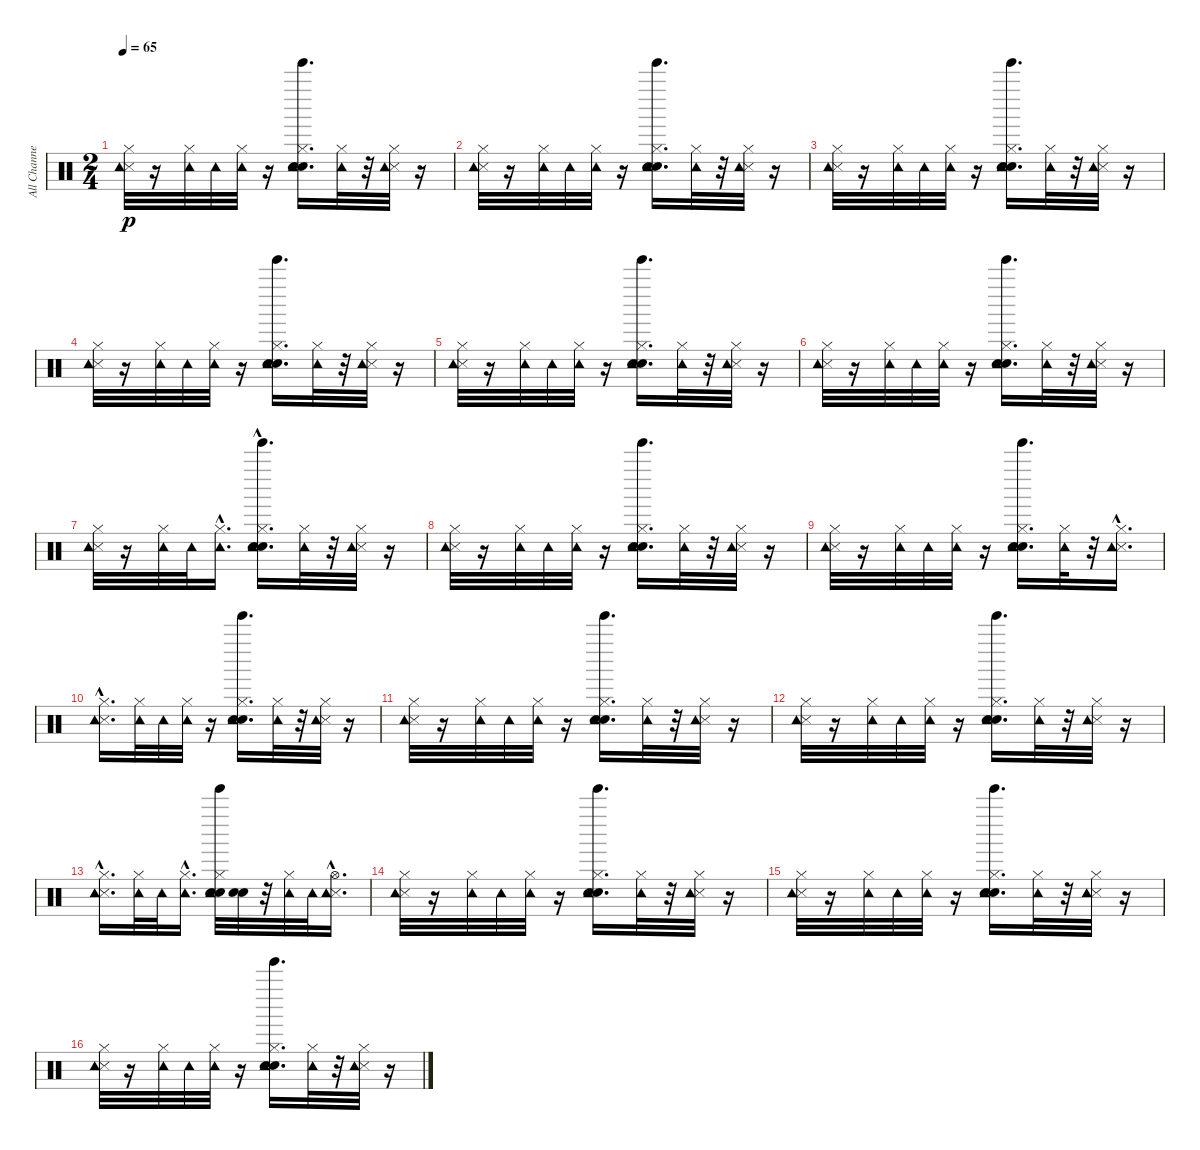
\track ("All Channels*merged" "All Channe") {instrument percussion}
\staff {score}
\articulation defaults
\ts (2 4)
\tempo 65
\clef neutral
\ks c
("Metronome (hit)" "Hi-Hat (closed)" "Tambourine (hit)").32{dy p} r.16 ("Hi-Hat (closed)" "Tambourine (hit)").32 "Tambourine (hit)".32 ("Hi-Hat (closed)" "Tambourine (hit)").32 r.16 ("Metronome (bell)" "Electric Snare (hit)" "Hi-Hat (closed)" "Tambourine (hit)" "Tinkle Bell (hit)").16{d} ("Hi-Hat (closed)" "Tambourine (hit)").32 r.32 ("Metronome (hit)" "Hi-Hat (closed)" "Tambourine (hit)").32 r.16 |
("Metronome (hit)" "Hi-Hat (closed)" "Tambourine (hit)").32 r.16 ("Hi-Hat (closed)" "Tambourine (hit)").32 "Tambourine (hit)".32 ("Hi-Hat (closed)" "Tambourine (hit)").32 r.16 ("Metronome (bell)" "Electric Snare (hit)" "Hi-Hat (closed)" "Tambourine (hit)" "Tinkle Bell (hit)").16{d} ("Hi-Hat (closed)" "Tambourine (hit)").32 r.32 ("Metronome (hit)" "Hi-Hat (closed)" "Tambourine (hit)").32 r.16 |
("Metronome (hit)" "Hi-Hat (closed)" "Tambourine (hit)").32 r.16 ("Hi-Hat (closed)" "Tambourine (hit)").32 "Tambourine (hit)".32 ("Hi-Hat (closed)" "Tambourine (hit)").32 r.16 ("Metronome (bell)" "Electric Snare (hit)" "Hi-Hat (closed)" "Tambourine (hit)" "Tinkle Bell (hit)").16{d} ("Hi-Hat (closed)" "Tambourine (hit)").32 r.32 ("Metronome (hit)" "Hi-Hat (closed)" "Tambourine (hit)").32 r.16 |
("Metronome (hit)" "Hi-Hat (closed)" "Tambourine (hit)").32 r.16 ("Hi-Hat (closed)" "Tambourine (hit)").32 "Tambourine (hit)".32 ("Hi-Hat (closed)" "Tambourine (hit)").32 r.16 ("Metronome (bell)" "Electric Snare (hit)" "Hi-Hat (closed)" "Tambourine (hit)" "Tinkle Bell (hit)").16{d} ("Hi-Hat (closed)" "Tambourine (hit)").32 r.32 ("Metronome (hit)" "Hi-Hat (closed)" "Tambourine (hit)").32 r.16 |
("Metronome (hit)" "Hi-Hat (closed)" "Tambourine (hit)").32 r.16 ("Hi-Hat (closed)" "Tambourine (hit)").32 "Tambourine (hit)".32 ("Hi-Hat (closed)" "Tambourine (hit)").32 r.16 ("Metronome (bell)" "Electric Snare (hit)" "Hi-Hat (closed)" "Tambourine (hit)" "Tinkle Bell (hit)").16{d} ("Hi-Hat (closed)" "Tambourine (hit)").32 r.32 ("Metronome (hit)" "Hi-Hat (closed)" "Tambourine (hit)").32 r.16 |
("Metronome (hit)" "Hi-Hat (closed)" "Tambourine (hit)").32 r.16 ("Hi-Hat (closed)" "Tambourine (hit)").32 "Tambourine (hit)".32 ("Hi-Hat (closed)" "Tambourine (hit)").32 r.16 ("Metronome (bell)" "Electric Snare (hit)" "Hi-Hat (closed)" "Tambourine (hit)" "Tinkle Bell (hit)").16{d} ("Hi-Hat (closed)" "Tambourine (hit)").32 r.32 ("Metronome (hit)" "Hi-Hat (closed)" "Tambourine (hit)").32 r.16 |
("Metronome (hit)" "Hi-Hat (closed)" "Tambourine (hit)").32 r.16 ("Hi-Hat (closed)" "Tambourine (hit)").32 "Tambourine (hit)".32 ("Hi-Hat (closed)" "Tambourine (hit)"{hac}).16{d} ("Metronome (bell)" "Electric Snare (hit)" "Hi-Hat (closed)" "Tambourine (hit)"{hac} "Tinkle Bell (hit)").16{d} ("Hi-Hat (closed)" "Tambourine (hit)").32 r.32 ("Metronome (hit)" "Hi-Hat (closed)" "Tambourine (hit)").32 r.16 |
("Metronome (hit)" "Hi-Hat (closed)" "Tambourine (hit)").32 r.16 ("Hi-Hat (closed)" "Tambourine (hit)").32 "Tambourine (hit)".32 ("Hi-Hat (closed)" "Tambourine (hit)").32 r.16 ("Metronome (bell)" "Electric Snare (hit)" "Hi-Hat (closed)" "Tambourine (hit)" "Tinkle Bell (hit)").16{d} ("Hi-Hat (closed)" "Tambourine (hit)").32 r.32 ("Metronome (hit)" "Hi-Hat (closed)" "Tambourine (hit)").32 r.16 |
("Metronome (hit)" "Hi-Hat (closed)" "Tambourine (hit)").32 r.16 ("Hi-Hat (closed)" "Tambourine (hit)").32 "Tambourine (hit)".32 ("Hi-Hat (closed)" "Tambourine (hit)").32 r.16 ("Metronome (bell)" "Electric Snare (hit)" "Hi-Hat (closed)" "Tambourine (hit)" "Tinkle Bell (hit)").16{d} ("Hi-Hat (closed)" "Tambourine (hit)").32 r.32 ("Metronome (hit)"{hac} "Hi-Hat (closed)" "Tambourine (hit)").16{d} |
("Metronome (hit)"{hac} "Hi-Hat (closed)" "Tambourine (hit)").16{d} ("Hi-Hat (closed)" "Tambourine (hit)").32 "Tambourine (hit)".32 ("Hi-Hat (closed)" "Tambourine (hit)").32 r.16 ("Metronome (bell)" "Electric Snare (hit)" "Hi-Hat (closed)" "Tambourine (hit)" "Tinkle Bell (hit)").16{d} ("Hi-Hat (closed)" "Tambourine (hit)").32 r.32 ("Metronome (hit)" "Hi-Hat (closed)" "Tambourine (hit)").32 r.16 |
("Metronome (hit)" "Hi-Hat (closed)" "Tambourine (hit)").32 r.16 ("Hi-Hat (closed)" "Tambourine (hit)").32 "Tambourine (hit)".32 ("Hi-Hat (closed)" "Tambourine (hit)").32 r.16 ("Metronome (bell)" "Electric Snare (hit)" "Hi-Hat (closed)" "Tambourine (hit)" "Tinkle Bell (hit)").16{d} ("Hi-Hat (closed)" "Tambourine (hit)").32 r.32 ("Metronome (hit)" "Hi-Hat (closed)" "Tambourine (hit)").32 r.16 |
("Metronome (hit)" "Hi-Hat (closed)" "Tambourine (hit)").32 r.16 ("Hi-Hat (closed)" "Tambourine (hit)").32 "Tambourine (hit)".32 ("Hi-Hat (closed)" "Tambourine (hit)").32 r.16 ("Metronome (bell)" "Electric Snare (hit)" "Hi-Hat (closed)" "Tambourine (hit)" "Tinkle Bell (hit)").16{d} ("Hi-Hat (closed)" "Tambourine (hit)").32 r.32 ("Metronome (hit)" "Hi-Hat (closed)" "Tambourine (hit)").32 r.16 |
("Metronome (hit)"{hac} "Hi-Hat (closed)" "Tambourine (hit)").16{d} ("Hi-Hat (closed)" "Tambourine (hit)").32 "Tambourine (hit)".32 ("Hi-Hat (closed)" "Tambourine (hit)"{hac}).16{d} ("Metronome (bell)" "Electric Snare (hit)" "Hi-Hat (closed)" "Tambourine (hit)" "Tinkle Bell (hit)").32 ("Metronome (bell)" "Electric Snare (hit)").32 r.32 ("Hi-Hat (closed)" "Tambourine (hit)").32 "Tambourine (hit)".32 ("Metronome (hit)"{hac} "Hi-Hat (open)" "Tambourine (hit)").16{d} |
("Metronome (hit)" "Hi-Hat (closed)" "Tambourine (hit)").32 r.16 ("Hi-Hat (closed)" "Tambourine (hit)").32 "Tambourine (hit)".32 ("Hi-Hat (closed)" "Tambourine (hit)").32 r.16 ("Metronome (bell)" "Electric Snare (hit)" "Hi-Hat (closed)" "Tambourine (hit)" "Tinkle Bell (hit)").16{d} ("Hi-Hat (closed)" "Tambourine (hit)").32 r.32 ("Metronome (hit)" "Hi-Hat (closed)" "Tambourine (hit)").32 r.16 |
("Metronome (hit)" "Hi-Hat (closed)" "Tambourine (hit)").32 r.16 ("Hi-Hat (closed)" "Tambourine (hit)").32 "Tambourine (hit)".32 ("Hi-Hat (closed)" "Tambourine (hit)").32 r.16 ("Metronome (bell)" "Electric Snare (hit)" "Hi-Hat (closed)" "Tambourine (hit)" "Tinkle Bell (hit)").16{d} ("Hi-Hat (closed)" "Tambourine (hit)").32 r.32 ("Metronome (hit)" "Hi-Hat (closed)" "Tambourine (hit)").32 r.16 |
("Metronome (hit)" "Hi-Hat (closed)" "Tambourine (hit)").32 r.16 ("Hi-Hat (closed)" "Tambourine (hit)").32 "Tambourine (hit)".32 ("Hi-Hat (closed)" "Tambourine (hit)").32 r.16 ("Metronome (bell)" "Electric Snare (hit)" "Hi-Hat (closed)" "Tambourine (hit)" "Tinkle Bell (hit)").16{d} ("Hi-Hat (closed)" "Tambourine (hit)").32 r.32 ("Metronome (hit)" "Hi-Hat (closed)" "Tambourine (hit)").32 r.16
